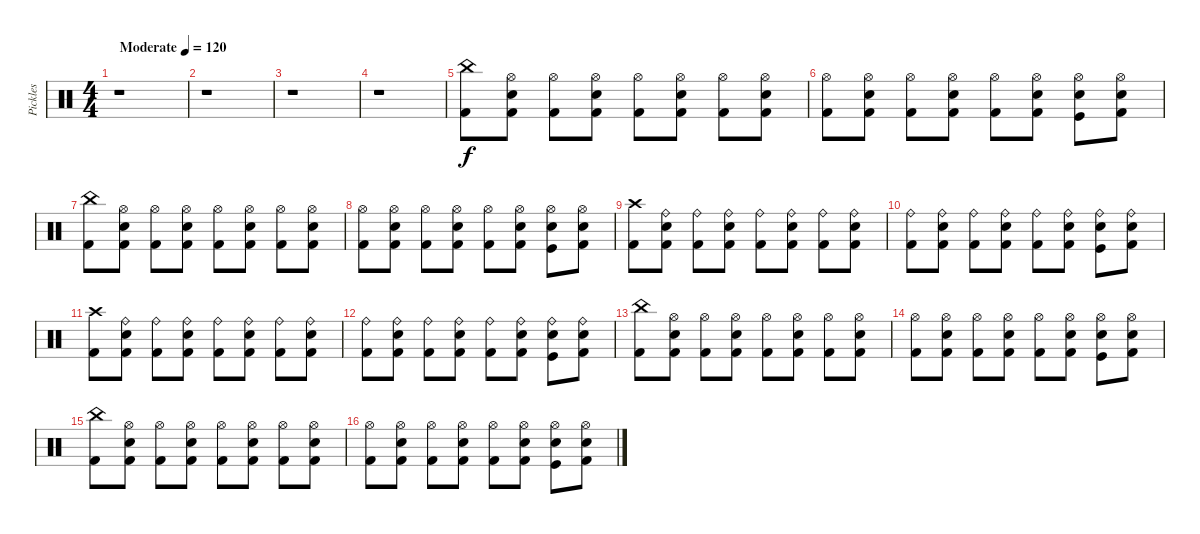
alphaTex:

\track ("Pickles" "Pickles") {instrument percussion}
\staff {score}
\articulation defaults
\ts (4 4)
\tempo (120 "Moderate")
\clef neutral
\ks aminor
r.1{dy f} |
r.1 |
r.1 |
r.1 |
("Kick (hit) 2" "China (hit)").8 ("Snare (hit) 2" "Kick (hit) 2" "Hi-Hat (open)").8 ("Kick (hit) 2" "Hi-Hat (open)").8 ("Snare (hit) 2" "Kick (hit) 2" "Hi-Hat (open)").8 ("Kick (hit) 2" "Hi-Hat (open)").8 ("Snare (hit) 2" "Kick (hit) 2" "Hi-Hat (open)").8 ("Kick (hit) 2" "Hi-Hat (open)").8 ("Snare (hit) 2" "Kick (hit) 2" "Hi-Hat (open)").8 |
("Kick (hit) 2" "Hi-Hat (open)").8 ("Snare (hit) 2" "Kick (hit) 2" "Hi-Hat (open)").8 ("Kick (hit) 2" "Hi-Hat (open)").8 ("Snare (hit) 2" "Kick (hit) 2" "Hi-Hat (open)").8 ("Kick (hit) 2" "Hi-Hat (open)").8 ("Snare (hit) 2" "Kick (hit) 2" "Hi-Hat (open)").8 ("Snare (hit) 2" "Kick (hit)" "Hi-Hat (open)").8 ("Snare (hit) 2" "Kick (hit) 2" "Hi-Hat (open)").8 |
("Kick (hit) 2" "China (hit)").8 ("Snare (hit) 2" "Kick (hit) 2" "Hi-Hat (open)").8 ("Kick (hit) 2" "Hi-Hat (open)").8 ("Snare (hit) 2" "Kick (hit) 2" "Hi-Hat (open)").8 ("Kick (hit) 2" "Hi-Hat (open)").8 ("Snare (hit) 2" "Kick (hit) 2" "Hi-Hat (open)").8 ("Kick (hit) 2" "Hi-Hat (open)").8 ("Snare (hit) 2" "Kick (hit) 2" "Hi-Hat (open)").8 |
("Kick (hit) 2" "Hi-Hat (open)").8 ("Snare (hit) 2" "Kick (hit) 2" "Hi-Hat (open)").8 ("Kick (hit) 2" "Hi-Hat (open)").8 ("Snare (hit) 2" "Kick (hit) 2" "Hi-Hat (open)").8 ("Kick (hit) 2" "Hi-Hat (open)").8 ("Snare (hit) 2" "Kick (hit) 2" "Hi-Hat (open)").8 ("Snare (hit) 2" "Kick (hit)" "Hi-Hat (open)").8 ("Snare (hit) 2" "Kick (hit) 2" "Hi-Hat (open)").8 |
("Kick (hit) 2" "Crash high (hit)").8 ("Snare (hit) 2" "Kick (hit) 2" "Ride (bell)").8 ("Kick (hit) 2" "Ride (bell)").8 ("Snare (hit) 2" "Kick (hit) 2" "Ride (bell)").8 ("Kick (hit) 2" "Ride (bell)").8 ("Snare (hit) 2" "Kick (hit) 2" "Ride (bell)").8 ("Kick (hit) 2" "Ride (bell)").8 ("Snare (hit) 2" "Kick (hit) 2" "Ride (bell)").8 |
("Kick (hit) 2" "Ride (bell)").8 ("Snare (hit) 2" "Kick (hit) 2" "Ride (bell)").8 ("Kick (hit) 2" "Ride (bell)").8 ("Snare (hit) 2" "Kick (hit) 2" "Ride (bell)").8 ("Kick (hit) 2" "Ride (bell)").8 ("Snare (hit) 2" "Kick (hit) 2" "Ride (bell)").8 ("Snare (hit) 2" "Kick (hit)" "Ride (bell)").8 ("Snare (hit) 2" "Kick (hit) 2" "Ride (bell)").8 |
("Kick (hit) 2" "Crash high (hit)").8 ("Snare (hit) 2" "Kick (hit) 2" "Ride (bell)").8 ("Kick (hit) 2" "Ride (bell)").8 ("Snare (hit) 2" "Kick (hit) 2" "Ride (bell)").8 ("Kick (hit) 2" "Ride (bell)").8 ("Snare (hit) 2" "Kick (hit) 2" "Ride (bell)").8 ("Kick (hit) 2" "Ride (bell)").8 ("Snare (hit) 2" "Kick (hit) 2" "Ride (bell)").8 |
("Kick (hit) 2" "Ride (bell)").8 ("Snare (hit) 2" "Kick (hit) 2" "Ride (bell)").8 ("Kick (hit) 2" "Ride (bell)").8 ("Snare (hit) 2" "Kick (hit) 2" "Ride (bell)").8 ("Kick (hit) 2" "Ride (bell)").8 ("Snare (hit) 2" "Kick (hit) 2" "Ride (bell)").8 ("Snare (hit) 2" "Kick (hit)" "Ride (bell)").8 ("Snare (hit) 2" "Kick (hit) 2" "Ride (bell)").8 |
("Kick (hit) 2" "China (hit)").8 ("Snare (hit) 2" "Kick (hit) 2" "Hi-Hat (open)").8 ("Kick (hit) 2" "Hi-Hat (open)").8 ("Snare (hit) 2" "Kick (hit) 2" "Hi-Hat (open)").8 ("Kick (hit) 2" "Hi-Hat (open)").8 ("Snare (hit) 2" "Kick (hit) 2" "Hi-Hat (open)").8 ("Kick (hit) 2" "Hi-Hat (open)").8 ("Snare (hit) 2" "Kick (hit) 2" "Hi-Hat (open)").8 |
("Kick (hit) 2" "Hi-Hat (open)").8 ("Snare (hit) 2" "Kick (hit) 2" "Hi-Hat (open)").8 ("Kick (hit) 2" "Hi-Hat (open)").8 ("Snare (hit) 2" "Kick (hit) 2" "Hi-Hat (open)").8 ("Kick (hit) 2" "Hi-Hat (open)").8 ("Snare (hit) 2" "Kick (hit) 2" "Hi-Hat (open)").8 ("Snare (hit) 2" "Kick (hit)" "Hi-Hat (open)").8 ("Snare (hit) 2" "Kick (hit) 2" "Hi-Hat (open)").8 |
("Kick (hit) 2" "China (hit)").8 ("Snare (hit) 2" "Kick (hit) 2" "Hi-Hat (open)").8 ("Kick (hit) 2" "Hi-Hat (open)").8 ("Snare (hit) 2" "Kick (hit) 2" "Hi-Hat (open)").8 ("Kick (hit) 2" "Hi-Hat (open)").8 ("Snare (hit) 2" "Kick (hit) 2" "Hi-Hat (open)").8 ("Kick (hit) 2" "Hi-Hat (open)").8 ("Snare (hit) 2" "Kick (hit) 2" "Hi-Hat (open)").8 |
("Kick (hit) 2" "Hi-Hat (open)").8 ("Snare (hit) 2" "Kick (hit) 2" "Hi-Hat (open)").8 ("Kick (hit) 2" "Hi-Hat (open)").8 ("Snare (hit) 2" "Kick (hit) 2" "Hi-Hat (open)").8 ("Kick (hit) 2" "Hi-Hat (open)").8 ("Snare (hit) 2" "Kick (hit) 2" "Hi-Hat (open)").8 ("Snare (hit) 2" "Kick (hit)" "Hi-Hat (open)").8 ("Snare (hit) 2" "Kick (hit) 2" "Hi-Hat (open)").8
